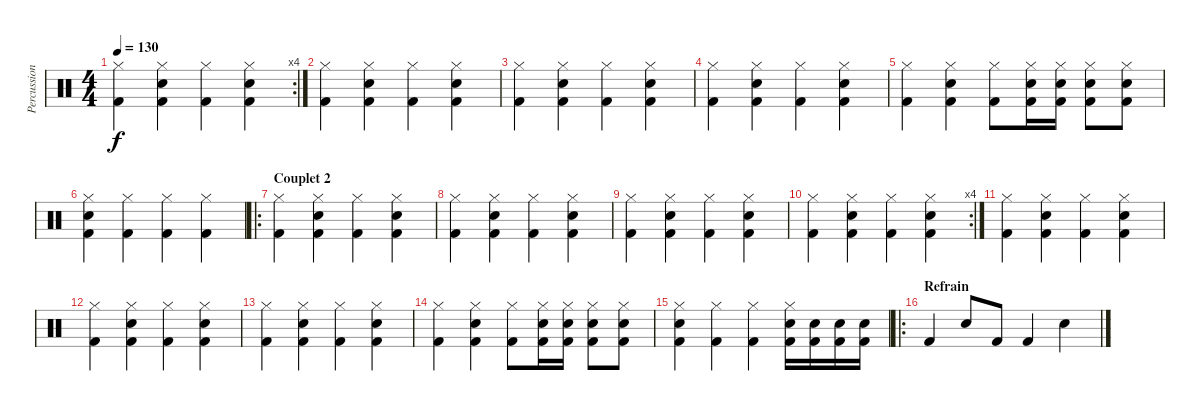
\track ("Percussions" "Percussion") {instrument percussion}
\staff {score}
\articulation defaults
\rc 4
\ts (4 4)
\tempo 130
\clef neutral
\ks c
("Hi-Hat (closed)" "Kick (hit) 2").4{dy f} ("Hi-Hat (closed)" "Kick (hit) 2" "Snare (hit) 2").4 ("Hi-Hat (closed)" "Kick (hit) 2").4 ("Hi-Hat (closed)" "Kick (hit) 2" "Snare (hit) 2").4 |
("Hi-Hat (closed)" "Kick (hit) 2").4 ("Hi-Hat (closed)" "Kick (hit) 2" "Snare (hit) 2").4 ("Hi-Hat (closed)" "Kick (hit) 2").4 ("Hi-Hat (closed)" "Kick (hit) 2" "Snare (hit) 2").4 |
("Hi-Hat (closed)" "Kick (hit) 2").4 ("Hi-Hat (closed)" "Kick (hit) 2" "Snare (hit) 2").4 ("Hi-Hat (closed)" "Kick (hit) 2").4 ("Hi-Hat (closed)" "Kick (hit) 2" "Snare (hit) 2").4 |
("Hi-Hat (closed)" "Kick (hit) 2").4 ("Hi-Hat (closed)" "Kick (hit) 2" "Snare (hit) 2").4 ("Hi-Hat (closed)" "Kick (hit) 2").4 ("Hi-Hat (closed)" "Kick (hit) 2" "Snare (hit) 2").4 |
("Hi-Hat (closed)" "Kick (hit) 2").4 ("Hi-Hat (closed)" "Kick (hit) 2" "Snare (hit) 2").4 ("Hi-Hat (closed)" "Kick (hit) 2").8 ("Hi-Hat (closed)" "Kick (hit) 2" "Snare (hit) 2").16 ("Hi-Hat (closed)" "Kick (hit) 2" "Snare (hit) 2").16 ("Hi-Hat (closed)" "Kick (hit) 2" "Snare (hit) 2").8 ("Hi-Hat (closed)" "Kick (hit) 2" "Snare (hit) 2").8 |
("Hi-Hat (closed)" "Kick (hit) 2" "Snare (hit) 2").4 ("Hi-Hat (closed)" "Kick (hit) 2").4 ("Hi-Hat (closed)" "Kick (hit) 2").4 ("Hi-Hat (closed)" "Kick (hit) 2").4 |
\ro
\section ("" "Couplet 2")
("Hi-Hat (closed)" "Kick (hit) 2").4 ("Hi-Hat (closed)" "Kick (hit) 2" "Snare (hit) 2").4 ("Hi-Hat (closed)" "Kick (hit) 2").4 ("Hi-Hat (closed)" "Kick (hit) 2" "Snare (hit) 2").4 |
("Hi-Hat (closed)" "Kick (hit) 2").4 ("Hi-Hat (closed)" "Kick (hit) 2" "Snare (hit) 2").4 ("Hi-Hat (closed)" "Kick (hit) 2").4 ("Hi-Hat (closed)" "Kick (hit) 2" "Snare (hit) 2").4 |
("Hi-Hat (closed)" "Kick (hit) 2").4 ("Hi-Hat (closed)" "Kick (hit) 2" "Snare (hit) 2").4 ("Hi-Hat (closed)" "Kick (hit) 2").4 ("Hi-Hat (closed)" "Kick (hit) 2" "Snare (hit) 2").4 |
\rc 4
("Hi-Hat (closed)" "Kick (hit) 2").4 ("Hi-Hat (closed)" "Kick (hit) 2" "Snare (hit) 2").4 ("Hi-Hat (closed)" "Kick (hit) 2").4 ("Hi-Hat (closed)" "Kick (hit) 2" "Snare (hit) 2").4 |
("Hi-Hat (closed)" "Kick (hit) 2").4 ("Hi-Hat (closed)" "Kick (hit) 2" "Snare (hit) 2").4 ("Hi-Hat (closed)" "Kick (hit) 2").4 ("Hi-Hat (closed)" "Kick (hit) 2" "Snare (hit) 2").4 |
("Hi-Hat (closed)" "Kick (hit) 2").4 ("Hi-Hat (closed)" "Kick (hit) 2" "Snare (hit) 2").4 ("Hi-Hat (closed)" "Kick (hit) 2").4 ("Hi-Hat (closed)" "Kick (hit) 2" "Snare (hit) 2").4 |
("Hi-Hat (closed)" "Kick (hit) 2").4 ("Hi-Hat (closed)" "Kick (hit) 2" "Snare (hit) 2").4 ("Hi-Hat (closed)" "Kick (hit) 2").4 ("Hi-Hat (closed)" "Kick (hit) 2" "Snare (hit) 2").4 |
("Hi-Hat (closed)" "Kick (hit) 2").4 ("Hi-Hat (closed)" "Kick (hit) 2" "Snare (hit) 2").4 ("Hi-Hat (closed)" "Kick (hit) 2").8 ("Hi-Hat (closed)" "Kick (hit) 2" "Snare (hit) 2").16 ("Hi-Hat (closed)" "Kick (hit) 2" "Snare (hit) 2").16 ("Hi-Hat (closed)" "Kick (hit) 2" "Snare (hit) 2").8 ("Hi-Hat (closed)" "Kick (hit) 2" "Snare (hit) 2").8 |
("Hi-Hat (closed)" "Kick (hit) 2" "Snare (hit) 2").4 ("Hi-Hat (closed)" "Kick (hit) 2").4 ("Hi-Hat (closed)" "Kick (hit) 2").4 ("Hi-Hat (closed)" "Kick (hit) 2" "Snare (hit) 2").16 ("Kick (hit) 2" "Snare (hit) 2").16 ("Kick (hit) 2" "Snare (hit) 2").16 ("Kick (hit) 2" "Snare (hit) 2").16 |
\ro
\section ("" "Refrain")
"Kick (hit) 2".4 "Snare (hit) 2".8 "Kick (hit) 2".8 "Kick (hit) 2".4 "Snare (hit) 2".4
